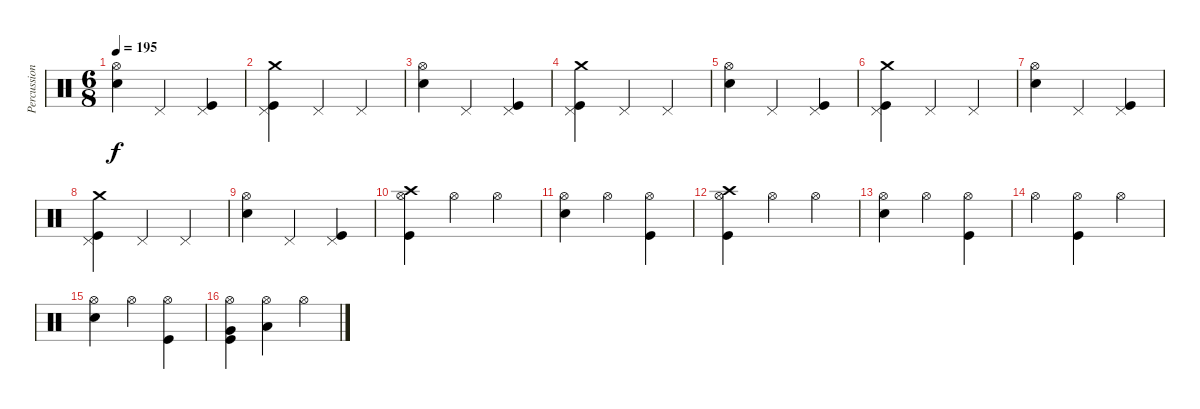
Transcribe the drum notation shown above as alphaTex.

\track ("Percussion" "Percussion") {instrument percussion}
\staff {score}
\articulation defaults
\ts (6 8)
\tempo 195
\clef neutral
\ks c
("Hi-Hat (open)" "Electric Snare (hit)").4{dy f} "Pedal Hi-Hat (hit)".4 ("Pedal Hi-Hat (hit)" "Kick (hit)").4 |
("Crash medium (hit)" "Pedal Hi-Hat (hit)" "Kick (hit)").4 "Pedal Hi-Hat (hit)".4 "Pedal Hi-Hat (hit)".4 |
("Hi-Hat (open)" "Electric Snare (hit)").4 "Pedal Hi-Hat (hit)".4 ("Pedal Hi-Hat (hit)" "Kick (hit)").4 |
("Crash medium (hit)" "Pedal Hi-Hat (hit)" "Kick (hit)").4 "Pedal Hi-Hat (hit)".4 "Pedal Hi-Hat (hit)".4 |
("Hi-Hat (open)" "Electric Snare (hit)").4 "Pedal Hi-Hat (hit)".4 ("Pedal Hi-Hat (hit)" "Kick (hit)").4 |
("Crash medium (hit)" "Pedal Hi-Hat (hit)" "Kick (hit)").4 "Pedal Hi-Hat (hit)".4 "Pedal Hi-Hat (hit)".4 |
("Hi-Hat (open)" "Electric Snare (hit)").4 "Pedal Hi-Hat (hit)".4 ("Pedal Hi-Hat (hit)" "Kick (hit)").4 |
("Crash medium (hit)" "Pedal Hi-Hat (hit)" "Kick (hit)").4 "Pedal Hi-Hat (hit)".4 "Pedal Hi-Hat (hit)".4 |
("Hi-Hat (open)" "Electric Snare (hit)").4 "Pedal Hi-Hat (hit)".4 ("Pedal Hi-Hat (hit)" "Kick (hit)").4 |
("Crash high (hit)" "Hi-Hat (open)" "Kick (hit)").4 "Hi-Hat (open)".4 "Hi-Hat (open)".4 |
("Hi-Hat (open)" "Electric Snare (hit)").4 "Hi-Hat (open)".4 ("Hi-Hat (open)" "Kick (hit)").4 |
("Crash high (hit)" "Hi-Hat (open)" "Kick (hit)").4 "Hi-Hat (open)".4 "Hi-Hat (open)".4 |
("Hi-Hat (open)" "Electric Snare (hit)").4 "Hi-Hat (open)".4 ("Hi-Hat (open)" "Kick (hit)").4 |
"Hi-Hat (open)".4 ("Hi-Hat (open)" "Kick (hit)").4 "Hi-Hat (open)".4 |
("Hi-Hat (open)" "Electric Snare (hit)").4 "Hi-Hat (open)".4 ("Hi-Hat (open)" "Kick (hit)").4 |
("Very Low Tom (hit)" "Hi-Hat (open)" "Kick (hit)").4 ("Low Floor Tom (hit)" "Hi-Hat (open)").4 "Hi-Hat (open)".4
